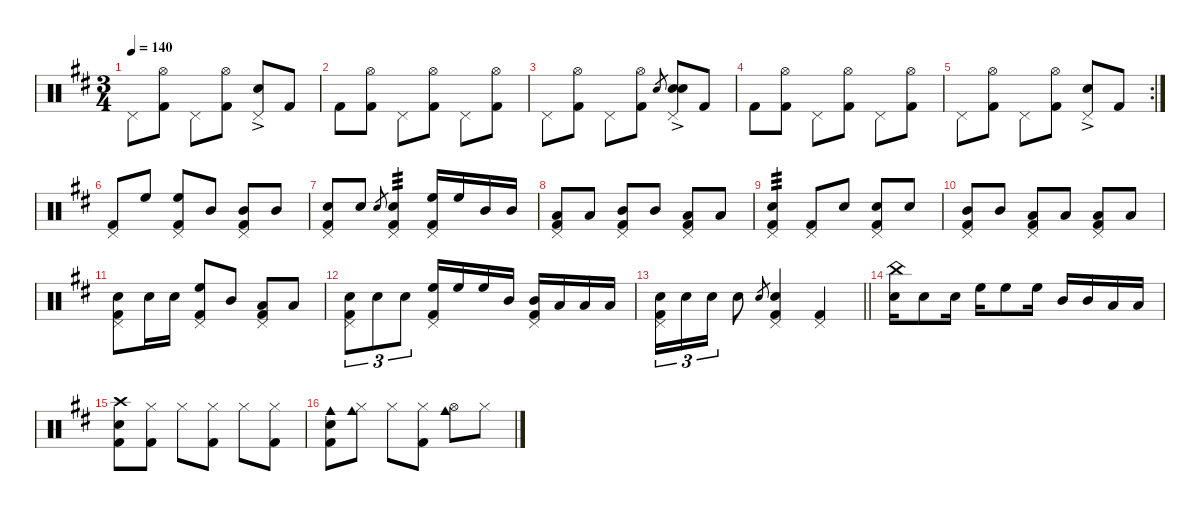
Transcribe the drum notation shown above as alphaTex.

\defaultSystemsLayout 4
\hideDynamics
\bracketExtendMode nobrackets
\singleTrackTrackNamePolicy hidden
\multiTrackTrackNamePolicy hidden
\otherSystemsTrackNameOrientation horizontal
\track ("Percussions" "drm.") {instrument percussion}
\staff {score}
\articulation defaults
\ts (3 4)
\tempo 140
\clef neutral
\ks d "Pedal Hi-Hat (hit)"{acc forcenatural}.8{dy f beam Down}
("Hi-Hat (open)"{acc forcenatural} "Kick (hit) 2"{acc forcenatural}).8{beam Down} "Pedal Hi-Hat (hit)"{acc forcenatural}.8{beam Down} ("Hi-Hat (open)"{acc forcenatural} "Kick (hit) 2"{acc forcenatural}).8{beam Down} ("Pedal Hi-Hat (hit)"{acc forcenatural} "Snare (hit) 2"{ac acc forcenatural}).8{beam Up} "Kick (hit) 2"{acc forcenatural}.8{beam Up} |
"Kick (hit) 2"{acc forcenatural}.8{beam Down} ("Hi-Hat (open)"{acc forcenatural} "Kick (hit) 2"{acc forcenatural}).8{beam Down} "Pedal Hi-Hat (hit)"{acc forcenatural}.8{beam Down} ("Hi-Hat (open)"{acc forcenatural} "Kick (hit) 2"{acc forcenatural}).8{beam Down} "Pedal Hi-Hat (hit)"{acc forcenatural}.8{beam Down} ("Hi-Hat (open)"{acc forcenatural} "Kick (hit) 2"{acc forcenatural}).8{beam Down} |
"Pedal Hi-Hat (hit)"{acc forcenatural}.8{beam Down} ("Hi-Hat (open)"{acc forcenatural} "Kick (hit) 2"{acc forcenatural}).8{beam Down} "Pedal Hi-Hat (hit)"{acc forcenatural}.8{beam Down} ("Hi-Hat (open)"{acc forcenatural} "Kick (hit) 2"{acc forcenatural}).8{beam Down} "Snare (hit) 2"{acc forcenatural}.8{gr dy mf beam Up} ("Pedal Hi-Hat (hit)"{acc forcenatural} "Snare (hit) 2"{ac acc forcenatural} "Snare (hit) 2"{acc forcenatural}).8{dy f beam Up} "Kick (hit) 2"{acc forcenatural}.8{beam Up} |
"Kick (hit) 2"{acc forcenatural}.8{beam Down} ("Hi-Hat (open)"{acc forcenatural} "Kick (hit) 2"{acc forcenatural}).8{beam Down} "Pedal Hi-Hat (hit)"{acc forcenatural}.8{beam Down} ("Hi-Hat (open)"{acc forcenatural} "Kick (hit) 2"{acc forcenatural}).8{beam Down} "Pedal Hi-Hat (hit)"{acc forcenatural}.8{beam Down} ("Hi-Hat (open)"{acc forcenatural} "Kick (hit) 2"{acc forcenatural}).8{beam Down} |
\rc 2 "Pedal Hi-Hat (hit)"{acc forcenatural}.8{beam Down}
("Hi-Hat (open)"{acc forcenatural} "Kick (hit) 2"{acc forcenatural}).8{beam Down} "Pedal Hi-Hat (hit)"{acc forcenatural}.8{beam Down} ("Hi-Hat (open)"{acc forcenatural} "Kick (hit) 2"{acc forcenatural}).8{beam Down} ("Pedal Hi-Hat (hit)"{acc forcenatural} "Snare (hit) 2"{ac acc forcenatural}).8{beam Up} "Kick (hit) 2"{acc forcenatural}.8{beam Up} |
("Pedal Hi-Hat (hit)"{acc forcenatural} "Kick (hit) 2"{acc forcenatural}).8{beam Up} "High Floor Tom (hit)"{acc forcenatural}.8{beam Up} ("Pedal Hi-Hat (hit)"{acc forcenatural} "High Floor Tom (hit)"{acc forcenatural} "Kick (hit) 2"{acc forcenatural}).8{beam Up} "Mid Tom (hit)"{acc forcenatural}.8{beam Up} ("Pedal Hi-Hat (hit)"{acc forcenatural} "Mid Tom (hit)"{acc forcenatural} "Kick (hit) 2"{acc forcenatural}).8{beam Up} "Mid Tom (hit)"{acc forcenatural}.8{beam Up} |
("Pedal Hi-Hat (hit)"{acc forcenatural} "Snare (hit) 2"{acc forcenatural} "Kick (hit) 2"{acc forcenatural}).8{beam Up} "Snare (hit) 2"{acc forcenatural}.8{beam Up} "Snare (hit) 2"{acc forcenatural}.8{gr dy mf beam Up} ("Pedal Hi-Hat (hit)"{acc forcenatural} "Snare (hit) 2"{acc forcenatural} "Kick (hit) 2"{acc forcenatural}).4{tp 3 dy f beam Up} ("Pedal Hi-Hat (hit)"{acc forcenatural} "High Floor Tom (hit)"{acc forcenatural} "Kick (hit) 2"{acc forcenatural}).16{beam Up} "High Floor Tom (hit)"{acc forcenatural}.16{beam Up} "Mid Tom (hit)"{acc forcenatural}.16{beam Up} "Mid Tom (hit)"{acc forcenatural}.16{beam Up} |
("Pedal Hi-Hat (hit)"{acc forcenatural} "Low Tom (hit)"{acc forcenatural} "Kick (hit) 2"{acc forcenatural}).8{beam Up} "Low Tom (hit)"{acc forcenatural}.8{beam Up} ("Pedal Hi-Hat (hit)"{acc forcenatural} "Mid Tom (hit)"{acc forcenatural} "Kick (hit) 2"{acc forcenatural}).8{beam Up} "Mid Tom (hit)"{acc forcenatural}.8{beam Up} ("Pedal Hi-Hat (hit)"{acc forcenatural} "Low Floor Tom (hit)"{acc forcenatural} "Kick (hit) 2"{acc forcenatural}).8{beam Up} "Low Floor Tom (hit)"{acc forcenatural}.8{beam Up} |
("Pedal Hi-Hat (hit)"{acc forcenatural} "Snare (hit) 2"{acc forcenatural} "Kick (hit) 2"{acc forcenatural}).4{tp 3 beam Up} ("Pedal Hi-Hat (hit)"{acc forcenatural} "Kick (hit) 2"{acc forcenatural}).8{beam Up} "Snare (hit) 2"{acc forcenatural}.8{beam Up} ("Pedal Hi-Hat (hit)"{acc forcenatural} "Snare (hit) 2"{acc forcenatural} "Kick (hit) 2"{acc forcenatural}).8{beam Up} "Snare (hit) 2"{acc forcenatural}.8{beam Up} |
("Pedal Hi-Hat (hit)"{acc forcenatural} "Mid Tom (hit)"{acc forcenatural} "Kick (hit) 2"{acc forcenatural}).8{beam Up} "Mid Tom (hit)"{acc forcenatural}.8{beam Up} ("Pedal Hi-Hat (hit)"{acc forcenatural} "Low Tom (hit)"{acc forcenatural} "Kick (hit) 2"{acc forcenatural}).8{beam Up} "Low Tom (hit)"{acc forcenatural}.8{beam Up} ("Pedal Hi-Hat (hit)"{acc forcenatural} "Low Floor Tom (hit)"{acc forcenatural} "Kick (hit) 2"{acc forcenatural}).8{beam Up} "Low Floor Tom (hit)"{acc forcenatural}.8{beam Up} |
("Pedal Hi-Hat (hit)"{acc forcenatural} "Snare (hit) 2"{acc forcenatural} "Kick (hit) 2"{acc forcenatural}).8{beam Down} "Snare (hit) 2"{acc forcenatural}.16{beam Down} "Snare (hit) 2"{acc forcenatural}.16{beam Down} ("Pedal Hi-Hat (hit)"{acc forcenatural} "High Floor Tom (hit)"{acc forcenatural} "Kick (hit) 2"{acc forcenatural}).8{beam Up} "Mid Tom (hit)"{acc forcenatural}.8{beam Up} ("Pedal Hi-Hat (hit)"{acc forcenatural} "Low Tom (hit)"{acc forcenatural} "Kick (hit) 2"{acc forcenatural}).8{beam Up} "Low Floor Tom (hit)"{acc forcenatural}.8{beam Up} |
("Pedal Hi-Hat (hit)"{acc forcenatural} "Snare (hit) 2"{acc forcenatural} "Kick (hit) 2"{acc forcenatural}).8{tu (3 2) beam Down} "Snare (hit) 2"{acc forcenatural}.8{tu (3 2) beam Down} "Snare (hit) 2"{acc forcenatural}.8{tu (3 2) beam Down} ("Pedal Hi-Hat (hit)"{acc forcenatural} "High Floor Tom (hit)"{acc forcenatural} "Kick (hit) 2"{acc forcenatural}).16{beam Up} "High Floor Tom (hit)"{acc forcenatural}.16{beam Up} "High Floor Tom (hit)"{acc forcenatural}.16{beam Up} "Mid Tom (hit)"{acc forcenatural}.16{beam Up} ("Pedal Hi-Hat (hit)"{acc forcenatural} "Mid Tom (hit)"{acc forcenatural} "Kick (hit) 2"{acc forcenatural}).16{beam Up} "Low Tom (hit)"{acc forcenatural}.16{beam Up} "Low Tom (hit)"{acc forcenatural}.16{beam Up} "Low Floor Tom (hit)"{acc forcenatural}.16{beam Up} |
\barLineRight lightlight
("Pedal Hi-Hat (hit)"{acc forcenatural} "Snare (hit) 2"{acc forcenatural} "Kick (hit) 2"{acc forcenatural}).16{tu (3 2) beam Down} "Snare (hit) 2"{acc forcenatural}.16{tu (3 2) beam Down} "Snare (hit) 2"{acc forcenatural}.16{tu (3 2) beam Down} "Snare (hit) 2"{acc forcenatural}.8{beam Down} "Snare (hit) 2"{acc forcenatural}.8{gr dy mf beam Up} ("Pedal Hi-Hat (hit)"{acc forcenatural} "Snare (hit) 2"{acc forcenatural} "Kick (hit) 2"{acc forcenatural}).4{dy f beam Up} ("Pedal Hi-Hat (hit)"{acc forcenatural} "Kick (hit) 2"{acc forcenatural}).4{beam Up} |
("China (hit)"{acc forcenatural} "Snare (hit) 2"{acc forcenatural}).16{beam Down} "Snare (hit) 2"{acc forcenatural}.8{beam Down} "Snare (hit) 2"{acc forcenatural}.16{beam Down} "High Floor Tom (hit)"{acc forcenatural}.16{beam Down} "High Floor Tom (hit)"{acc forcenatural}.8{beam Down} "High Floor Tom (hit)"{acc forcenatural}.16{beam Down} "Mid Tom (hit)"{acc forcenatural}.16{beam Up} "Mid Tom (hit)"{acc forcenatural}.16{beam Up} "Low Tom (hit)"{acc forcenatural}.16{beam Up} "Low Floor Tom (hit)"{acc forcenatural}.16{beam Up} |
("Crash high (hit)"{acc forcenatural} "Snare (hit) 2"{acc forcenatural} "Kick (hit) 2"{acc forcenatural}).8{beam Down} ("Hi-Hat (closed)"{acc forcenatural} "Kick (hit) 2"{acc forcenatural}).8{beam Down} "Hi-Hat (closed)"{acc forcenatural}.8{beam Down} ("Hi-Hat (closed)"{acc forcenatural} "Kick (hit) 2"{acc forcenatural}).8{beam Down} "Hi-Hat (closed)"{acc forcenatural}.8{beam Down} ("Hi-Hat (closed)"{acc forcenatural} "Kick (hit) 2"{acc forcenatural}).8{beam Down} |
("Cowbell medium (hit)"{acc forcenatural} "Snare (hit) 2"{acc forcenatural} "Kick (hit) 2"{acc forcenatural}).8{beam Down} ("Hi-Hat (closed)"{acc forcenatural} "Cowbell medium (hit)"{acc forcenatural}).8{beam Down} "Hi-Hat (closed)"{acc forcenatural}.8{beam Down} ("Hi-Hat (closed)"{acc forcenatural} "Kick (hit) 2"{acc forcenatural}).8{beam Down} ("Hi-Hat (open)"{acc forcenatural} "Cowbell medium (hit)"{acc forcenatural}).8{beam Down} "Hi-Hat (closed)"{acc forcenatural}.8{beam Down}
